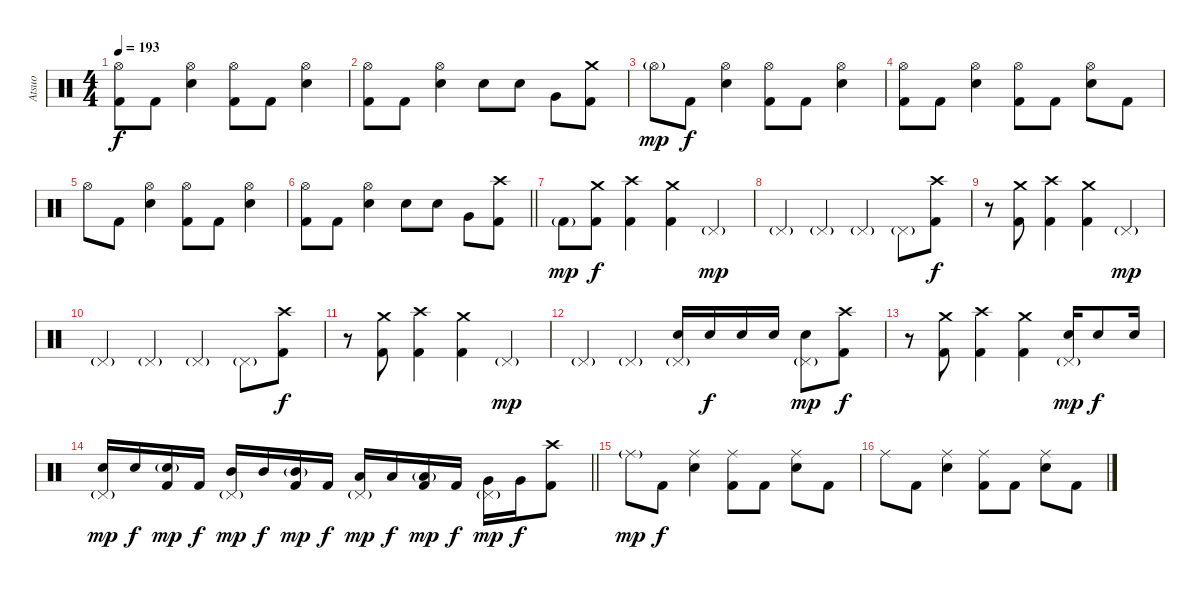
\track ("Atsuo" "Atsuo") {instrument percussion}
\staff {score}
\articulation defaults
\ts (4 4)
\tempo 193
\clef neutral
\ks c
("Hi-Hat (open)" "Kick (hit) 2").8{dy f} "Kick (hit) 2".8 ("Hi-Hat (open)" "Electric Snare (hit)").4 ("Hi-Hat (open)" "Kick (hit) 2").8 "Kick (hit) 2".8 ("Hi-Hat (open)" "Electric Snare (hit)").4 |
("Hi-Hat (open)" "Kick (hit) 2").8 "Kick (hit) 2".8 ("Hi-Hat (open)" "Electric Snare (hit)").4 "Electric Snare (hit)".8 "Electric Snare (hit)".8 "Very Low Tom (hit)".8 ("Crash medium (hit)" "Kick (hit) 2").8 |
"Hi-Hat (open)"{g}.8{dy mp} "Kick (hit) 2".8{dy f} ("Hi-Hat (open)" "Electric Snare (hit)").4 ("Hi-Hat (open)" "Kick (hit) 2").8 "Kick (hit) 2".8 ("Hi-Hat (open)" "Electric Snare (hit)").4 |
("Hi-Hat (open)" "Kick (hit) 2").8 "Kick (hit) 2".8 ("Hi-Hat (open)" "Electric Snare (hit)").4 ("Hi-Hat (open)" "Kick (hit) 2").8 "Kick (hit) 2".8 ("Hi-Hat (open)" "Electric Snare (hit)").8 "Kick (hit) 2".8 |
"Hi-Hat (open)".8 "Kick (hit) 2".8 ("Hi-Hat (open)" "Electric Snare (hit)").4 ("Hi-Hat (open)" "Kick (hit) 2").8 "Kick (hit) 2".8 ("Hi-Hat (open)" "Electric Snare (hit)").4 |
\barLineRight lightlight
("Hi-Hat (open)" "Kick (hit) 2").8 "Kick (hit) 2".8 ("Hi-Hat (open)" "Electric Snare (hit)").4 "Electric Snare (hit)".8 "Electric Snare (hit)".8 "Very Low Tom (hit)".8 ("Crash high (hit)" "Kick (hit) 2").8 |
\section ("" "")
"Kick (hit) 2"{g}.8{dy mp} ("Crash medium (hit)" "Kick (hit) 2").8{dy f} ("Crash high (hit)" "Kick (hit) 2").4 ("Crash medium (hit)" "Kick (hit) 2").4 "Pedal Hi-Hat (hit)"{g}.4{dy mp} |
"Pedal Hi-Hat (hit)"{g}.4 "Pedal Hi-Hat (hit)"{g}.4 "Pedal Hi-Hat (hit)"{g}.4 "Pedal Hi-Hat (hit)"{g}.8 ("Crash high (hit)" "Kick (hit) 2").8{dy f} |
r.8 ("Crash medium (hit)" "Kick (hit) 2").8 ("Crash high (hit)" "Kick (hit) 2").4 ("Crash medium (hit)" "Kick (hit) 2").4 "Pedal Hi-Hat (hit)"{g}.4{dy mp} |
"Pedal Hi-Hat (hit)"{g}.4 "Pedal Hi-Hat (hit)"{g}.4 "Pedal Hi-Hat (hit)"{g}.4 "Pedal Hi-Hat (hit)"{g}.8 ("Crash high (hit)" "Kick (hit) 2").8{dy f} |
r.8 ("Crash medium (hit)" "Kick (hit) 2").8 ("Crash high (hit)" "Kick (hit) 2").4 ("Crash medium (hit)" "Kick (hit) 2").4 "Pedal Hi-Hat (hit)"{g}.4{dy mp} |
"Pedal Hi-Hat (hit)"{g}.4 "Pedal Hi-Hat (hit)"{g}.4 ("Pedal Hi-Hat (hit)"{g} "Electric Snare (hit)").16 "Electric Snare (hit)".16{dy f} "Electric Snare (hit)".16 "Electric Snare (hit)".16 ("Pedal Hi-Hat (hit)"{g} "Electric Snare (hit)").8{dy mp} ("Crash high (hit)" "Kick (hit) 2").8{dy f} |
r.8 ("Crash medium (hit)" "Kick (hit) 2").8 ("Crash high (hit)" "Kick (hit) 2").4 ("Crash medium (hit)" "Kick (hit) 2").4 ("Pedal Hi-Hat (hit)"{g} "Electric Snare (hit)").16{dy mp} "Electric Snare (hit)".8{dy f} "Electric Snare (hit)".16 |
\barLineRight lightlight
("Pedal Hi-Hat (hit)"{g} "Electric Snare (hit)").16{dy mp} "Electric Snare (hit)".16{dy f} ("Electric Snare (hit)"{g} "Kick (hit) 2").16{dy mp} "Kick (hit) 2".16{dy f} ("Pedal Hi-Hat (hit)"{g} "Mid Tom (hit)").16{dy mp} "Mid Tom (hit)".16{dy f} ("Mid Tom (hit)"{g} "Kick (hit) 2").16{dy mp} "Kick (hit) 2".16{dy f} ("Pedal Hi-Hat (hit)"{g} "Low Tom (hit)").16{dy mp} "Low Tom (hit)".16{dy f} ("Low Tom (hit)"{g} "Kick (hit) 2").16{dy mp} "Kick (hit) 2".16{dy f} ("Pedal Hi-Hat (hit)"{g} "Very Low Tom (hit)").16{dy mp} "Very Low Tom (hit)".16{dy f} ("Crash high (hit)" "Kick (hit) 2").8 |
\section ("" "")
"Ride (middle)"{g}.8{dy mp} "Kick (hit) 2".8{dy f} ("Ride (middle)" "Electric Snare (hit)").4 ("Ride (middle)" "Kick (hit) 2").8 "Kick (hit) 2".8 ("Ride (middle)" "Electric Snare (hit)").8 "Kick (hit) 2".8 |
"Ride (middle)".8 "Kick (hit) 2".8 ("Ride (middle)" "Electric Snare (hit)").4 ("Ride (middle)" "Kick (hit) 2").8 "Kick (hit) 2".8 ("Ride (middle)" "Electric Snare (hit)").8 "Kick (hit) 2".8
